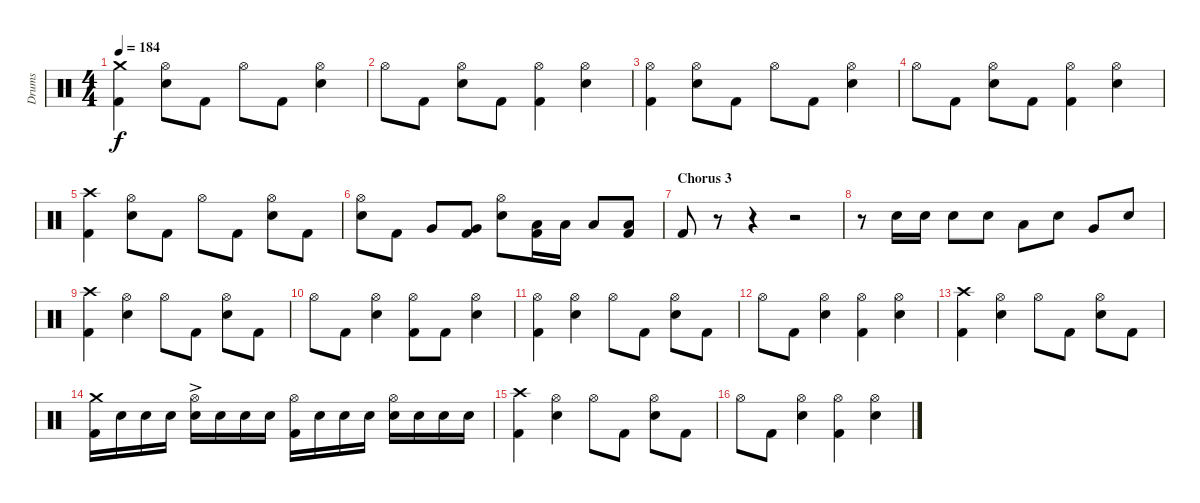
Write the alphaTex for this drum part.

\track ("Drums" "Drums") {instrument percussion}
\staff {score}
\articulation defaults
\ts (4 4)
\tempo 184
\clef neutral
\ks c
("Crash medium (hit)" "Kick (hit) 2").4{dy f} ("Hi-Hat (open)" "Snare (hit) 2").8 "Kick (hit) 2".8 "Hi-Hat (open)".8 "Kick (hit) 2".8 ("Hi-Hat (open)" "Snare (hit) 2").4 |
"Hi-Hat (open)".8 "Kick (hit) 2".8 ("Hi-Hat (open)" "Snare (hit) 2").8 "Kick (hit) 2".8 ("Hi-Hat (open)" "Kick (hit) 2").4 ("Hi-Hat (open)" "Snare (hit) 2").4 |
("Hi-Hat (open)" "Kick (hit) 2").4 ("Hi-Hat (open)" "Snare (hit) 2").8 "Kick (hit) 2".8 "Hi-Hat (open)".8 "Kick (hit) 2".8 ("Hi-Hat (open)" "Snare (hit) 2").4 |
"Hi-Hat (open)".8 "Kick (hit) 2".8 ("Hi-Hat (open)" "Snare (hit) 2").8 "Kick (hit) 2".8 ("Hi-Hat (open)" "Kick (hit) 2").4 ("Hi-Hat (open)" "Snare (hit) 2").4 |
("Crash high (hit)" "Kick (hit) 2").4 ("Hi-Hat (open)" "Snare (hit) 2").8 "Kick (hit) 2".8 "Hi-Hat (open)".8 "Kick (hit) 2".8 ("Hi-Hat (open)" "Snare (hit) 2").8 "Kick (hit) 2".8 |
("Hi-Hat (open)" "Snare (hit) 2").8 "Kick (hit) 2".8 "Very Low Tom (hit)".8 ("Very Low Tom (hit)" "Kick (hit) 2").8 ("Hi-Hat (open)" "Snare (hit) 2").8 ("Low Floor Tom (hit)" "Kick (hit) 2").16 "Low Floor Tom (hit)".16 "Low Floor Tom (hit)".8 ("Low Floor Tom (hit)" "Kick (hit) 2").8 |
\section ("" "Chorus 3")
"Kick (hit) 2".8 r.8 r.4 r.2 |
r.8 "Snare (hit) 2".16 "Snare (hit) 2".16 "Snare (hit) 2".8 "Snare (hit) 2".8 "Low Tom (hit)".8 "Snare (hit) 2".8 "Very Low Tom (hit)".8 "Snare (hit) 2".8 |
("Crash high (hit)" "Kick (hit) 2").4 ("Hi-Hat (open)" "Snare (hit) 2").4 "Hi-Hat (open)".8 "Kick (hit) 2".8 ("Hi-Hat (open)" "Snare (hit) 2").8 "Kick (hit) 2".8 |
"Hi-Hat (open)".8 "Kick (hit) 2".8 ("Hi-Hat (open)" "Snare (hit) 2").4 ("Hi-Hat (open)" "Kick (hit) 2").8 "Kick (hit) 2".8 ("Hi-Hat (open)" "Snare (hit) 2").4 |
("Hi-Hat (open)" "Kick (hit) 2").4 ("Hi-Hat (open)" "Snare (hit) 2").4 "Hi-Hat (open)".8 "Kick (hit) 2".8 ("Hi-Hat (open)" "Snare (hit) 2").8 "Kick (hit) 2".8 |
"Hi-Hat (open)".8 "Kick (hit) 2".8 ("Hi-Hat (open)" "Snare (hit) 2").4 ("Hi-Hat (open)" "Kick (hit) 2").4 ("Hi-Hat (open)" "Snare (hit) 2").4 |
("Crash high (hit)" "Kick (hit) 2").4 ("Hi-Hat (open)" "Snare (hit) 2").4 "Hi-Hat (open)".8 "Kick (hit) 2".8 ("Hi-Hat (open)" "Snare (hit) 2").8 "Kick (hit) 2".8 |
("Crash medium (hit)" "Kick (hit) 2").16 "Snare (hit) 2".16 "Snare (hit) 2".16 "Snare (hit) 2".16 ("Hi-Hat (open)" "Snare (hit) 2"{ac}).16 "Snare (hit) 2".16 "Snare (hit) 2".16 "Snare (hit) 2".16 ("Hi-Hat (open)" "Kick (hit) 2").16 "Snare (hit) 2".16 "Snare (hit) 2".16 "Snare (hit) 2".16 ("Hi-Hat (open)" "Snare (hit) 2").16 "Snare (hit) 2".16 "Snare (hit) 2".16 "Snare (hit) 2".16 |
("Crash high (hit)" "Kick (hit) 2").4 ("Hi-Hat (open)" "Snare (hit) 2").4 "Hi-Hat (open)".8 "Kick (hit) 2".8 ("Hi-Hat (open)" "Snare (hit) 2").8 "Kick (hit) 2".8 |
"Hi-Hat (open)".8 "Kick (hit) 2".8 ("Hi-Hat (open)" "Snare (hit) 2").4 ("Hi-Hat (open)" "Kick (hit) 2").4 ("Hi-Hat (open)" "Snare (hit) 2").4
